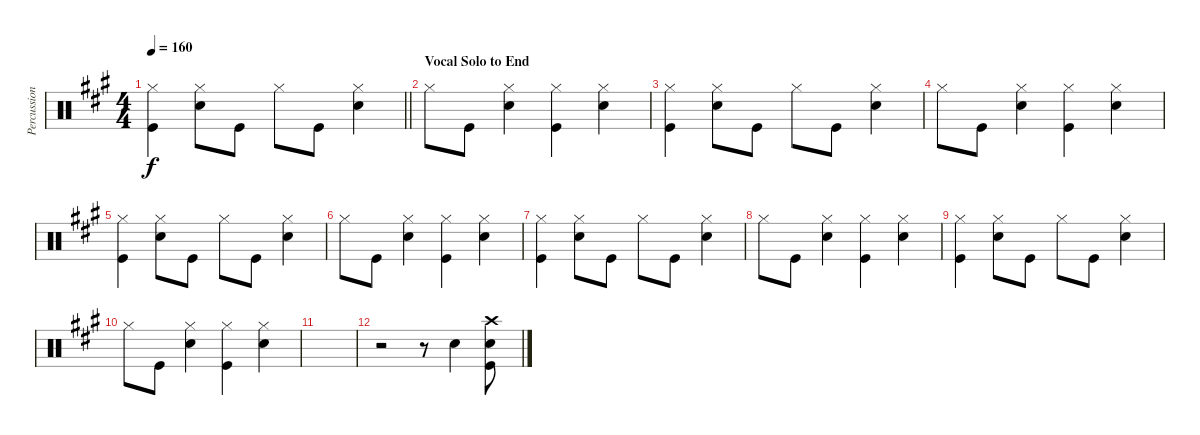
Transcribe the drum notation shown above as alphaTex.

\track ("Percussion" "Percussion") {instrument percussion}
\staff {score}
\articulation defaults
\ts (4 4)
\tempo 160
\clef neutral
\barLineRight lightlight
\ks a
("Hi-Hat (closed)" "Kick (hit)").4{dy f} ("Snare (hit) 2" "Hi-Hat (closed)").8 "Kick (hit)".8 "Hi-Hat (closed)".8 "Kick (hit)".8 ("Snare (hit) 2" "Hi-Hat (closed)").4 |
\section ("" "Vocal Solo to End")
"Hi-Hat (closed)".8 "Kick (hit)".8 ("Snare (hit) 2" "Hi-Hat (closed)").4 ("Kick (hit)" "Hi-Hat (closed)").4 ("Snare (hit) 2" "Hi-Hat (closed)").4 |
("Hi-Hat (closed)" "Kick (hit)").4 ("Snare (hit) 2" "Hi-Hat (closed)").8 "Kick (hit)".8 "Hi-Hat (closed)".8 "Kick (hit)".8 ("Snare (hit) 2" "Hi-Hat (closed)").4 |
"Hi-Hat (closed)".8 "Kick (hit)".8 ("Snare (hit) 2" "Hi-Hat (closed)").4 ("Kick (hit)" "Hi-Hat (closed)").4 ("Snare (hit) 2" "Hi-Hat (closed)").4 |
("Hi-Hat (closed)" "Kick (hit)").4 ("Snare (hit) 2" "Hi-Hat (closed)").8 "Kick (hit)".8 "Hi-Hat (closed)".8 "Kick (hit)".8 ("Snare (hit) 2" "Hi-Hat (closed)").4 |
"Hi-Hat (closed)".8 "Kick (hit)".8 ("Snare (hit) 2" "Hi-Hat (closed)").4 ("Kick (hit)" "Hi-Hat (closed)").4 ("Snare (hit) 2" "Hi-Hat (closed)").4 |
("Hi-Hat (closed)" "Kick (hit)").4 ("Snare (hit) 2" "Hi-Hat (closed)").8 "Kick (hit)".8 "Hi-Hat (closed)".8 "Kick (hit)".8 ("Snare (hit) 2" "Hi-Hat (closed)").4 |
"Hi-Hat (closed)".8 "Kick (hit)".8 ("Snare (hit) 2" "Hi-Hat (closed)").4 ("Kick (hit)" "Hi-Hat (closed)").4 ("Snare (hit) 2" "Hi-Hat (closed)").4 |
("Hi-Hat (closed)" "Kick (hit)").4 ("Snare (hit) 2" "Hi-Hat (closed)").8 "Kick (hit)".8 "Hi-Hat (closed)".8 "Kick (hit)".8 ("Snare (hit) 2" "Hi-Hat (closed)").4 |
"Hi-Hat (closed)".8 "Kick (hit)".8 ("Snare (hit) 2" "Hi-Hat (closed)").4 ("Kick (hit)" "Hi-Hat (closed)").4 ("Snare (hit) 2" "Hi-Hat (closed)").4 |
|
r.2 r.8 "Snare (hit) 2".4 ("Kick (hit)" "Snare (hit) 2" "Crash high (hit)").8
